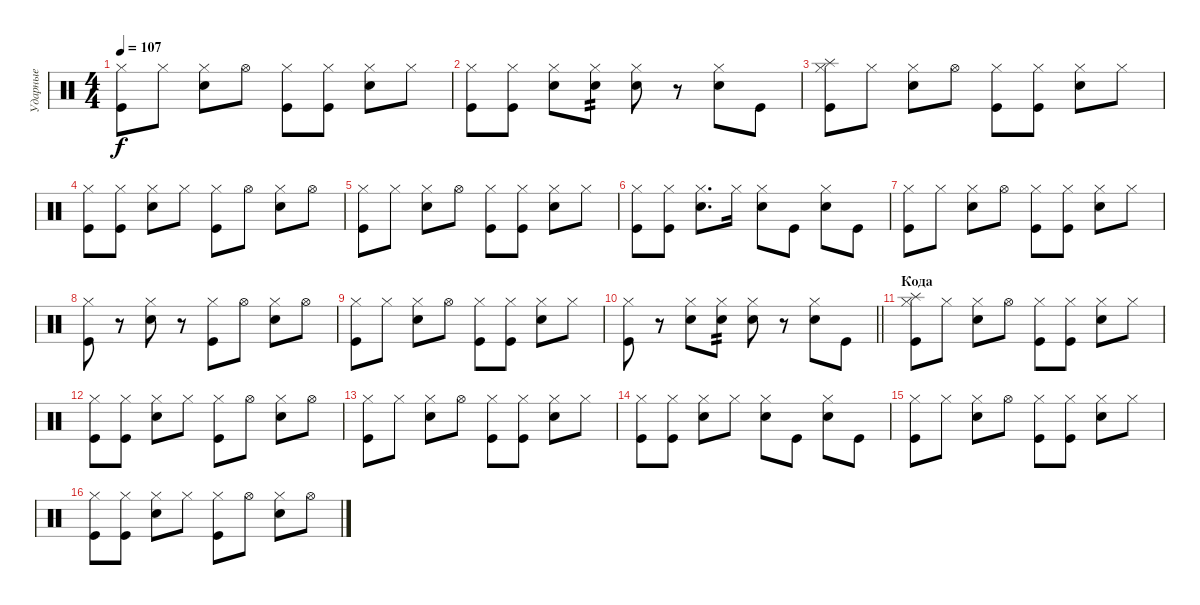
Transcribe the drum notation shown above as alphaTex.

\track ("Ударные" "Ударные") {instrument percussion}
\staff {score}
\articulation defaults
\ts (4 4)
\tempo 107
\clef neutral
\ks c
("Hi-Hat (closed)" "Kick (hit)").8{dy f} "Hi-Hat (closed)".8 ("Hi-Hat (closed)" "Electric Snare (hit)").8 "Hi-Hat (open)".8 ("Hi-Hat (closed)" "Kick (hit)").8 ("Hi-Hat (closed)" "Kick (hit)").8 ("Hi-Hat (closed)" "Electric Snare (hit)").8 "Hi-Hat (closed)".8 |
("Hi-Hat (closed)" "Kick (hit)").8 ("Hi-Hat (closed)" "Kick (hit)").8 ("Hi-Hat (closed)" "Electric Snare (hit)").8 ("Hi-Hat (closed)" "Electric Snare (hit)").8{tp 2} ("Hi-Hat (closed)" "Electric Snare (hit)").8 r.8 ("Hi-Hat (closed)" "Electric Snare (hit)").8 "Kick (hit)".8 |
("Hi-Hat (closed)" "Splash (hit)" "Kick (hit)").8 "Hi-Hat (closed)".8 ("Hi-Hat (closed)" "Electric Snare (hit)").8 "Hi-Hat (open)".8 ("Hi-Hat (closed)" "Kick (hit)").8 ("Hi-Hat (closed)" "Kick (hit)").8 ("Hi-Hat (closed)" "Electric Snare (hit)").8 "Hi-Hat (closed)".8 |
("Hi-Hat (closed)" "Kick (hit)").8 ("Hi-Hat (closed)" "Kick (hit)").8 ("Hi-Hat (closed)" "Electric Snare (hit)").8 "Hi-Hat (closed)".8 ("Hi-Hat (closed)" "Kick (hit)").8 "Hi-Hat (open)".8 ("Hi-Hat (closed)" "Electric Snare (hit)").8 "Hi-Hat (open)".8 |
("Hi-Hat (closed)" "Kick (hit)").8 "Hi-Hat (closed)".8 ("Hi-Hat (closed)" "Electric Snare (hit)").8 "Hi-Hat (open)".8 ("Hi-Hat (closed)" "Kick (hit)").8 ("Hi-Hat (closed)" "Kick (hit)").8 ("Hi-Hat (closed)" "Electric Snare (hit)").8 "Hi-Hat (closed)".8 |
("Hi-Hat (closed)" "Kick (hit)").8 ("Hi-Hat (closed)" "Kick (hit)").8 ("Hi-Hat (closed)" "Electric Snare (hit)").8{d} "Hi-Hat (closed)".16 ("Hi-Hat (closed)" "Electric Snare (hit)").8 "Kick (hit)".8 ("Hi-Hat (closed)" "Electric Snare (hit)").8 "Kick (hit)".8 |
("Hi-Hat (closed)" "Kick (hit)").8 "Hi-Hat (closed)".8 ("Hi-Hat (closed)" "Electric Snare (hit)").8 "Hi-Hat (open)".8 ("Hi-Hat (closed)" "Kick (hit)").8 ("Hi-Hat (closed)" "Kick (hit)").8 ("Hi-Hat (closed)" "Electric Snare (hit)").8 "Hi-Hat (closed)".8 |
("Hi-Hat (closed)" "Kick (hit)").8 r.8 ("Hi-Hat (closed)" "Electric Snare (hit)").8 r.8 ("Hi-Hat (closed)" "Kick (hit)").8 "Hi-Hat (open)".8 ("Hi-Hat (closed)" "Electric Snare (hit)").8 "Hi-Hat (open)".8 |
("Hi-Hat (closed)" "Kick (hit)").8 "Hi-Hat (closed)".8 ("Hi-Hat (closed)" "Electric Snare (hit)").8 "Hi-Hat (open)".8 ("Hi-Hat (closed)" "Kick (hit)").8 ("Hi-Hat (closed)" "Kick (hit)").8 ("Hi-Hat (closed)" "Electric Snare (hit)").8 "Hi-Hat (closed)".8 |
\barLineRight lightlight
("Hi-Hat (closed)" "Kick (hit)").8 r.8 ("Hi-Hat (closed)" "Electric Snare (hit)").8 ("Hi-Hat (closed)" "Electric Snare (hit)").8{tp 2} ("Hi-Hat (closed)" "Electric Snare (hit)").8 r.8 ("Hi-Hat (closed)" "Electric Snare (hit)").8 "Kick (hit)".8 |
\section ("" "Кода")
("Hi-Hat (closed)" "Splash (hit)" "Kick (hit)").8 "Hi-Hat (closed)".8 ("Hi-Hat (closed)" "Electric Snare (hit)").8 "Hi-Hat (open)".8 ("Hi-Hat (closed)" "Kick (hit)").8 ("Hi-Hat (closed)" "Kick (hit)").8 ("Hi-Hat (closed)" "Electric Snare (hit)").8 "Hi-Hat (closed)".8 |
("Hi-Hat (closed)" "Kick (hit)").8 ("Hi-Hat (closed)" "Kick (hit)").8 ("Hi-Hat (closed)" "Electric Snare (hit)").8 "Hi-Hat (closed)".8 ("Hi-Hat (closed)" "Kick (hit)").8 "Hi-Hat (open)".8 ("Hi-Hat (closed)" "Electric Snare (hit)").8 "Hi-Hat (open)".8 |
("Hi-Hat (closed)" "Kick (hit)").8 "Hi-Hat (closed)".8 ("Hi-Hat (closed)" "Electric Snare (hit)").8 "Hi-Hat (open)".8 ("Hi-Hat (closed)" "Kick (hit)").8 ("Hi-Hat (closed)" "Kick (hit)").8 ("Hi-Hat (closed)" "Electric Snare (hit)").8 "Hi-Hat (closed)".8 |
("Hi-Hat (closed)" "Kick (hit)").8 ("Hi-Hat (closed)" "Kick (hit)").8 ("Hi-Hat (closed)" "Electric Snare (hit)").8 "Hi-Hat (closed)".8 ("Hi-Hat (closed)" "Electric Snare (hit)").8 "Kick (hit)".8 ("Hi-Hat (closed)" "Electric Snare (hit)").8 "Kick (hit)".8 |
("Hi-Hat (closed)" "Kick (hit)").8 "Hi-Hat (closed)".8 ("Hi-Hat (closed)" "Electric Snare (hit)").8 "Hi-Hat (open)".8 ("Hi-Hat (closed)" "Kick (hit)").8 ("Hi-Hat (closed)" "Kick (hit)").8 ("Hi-Hat (closed)" "Electric Snare (hit)").8 "Hi-Hat (closed)".8 |
("Hi-Hat (closed)" "Kick (hit)").8 ("Hi-Hat (closed)" "Kick (hit)").8 ("Hi-Hat (closed)" "Electric Snare (hit)").8 "Hi-Hat (closed)".8 ("Hi-Hat (closed)" "Kick (hit)").8 "Hi-Hat (open)".8 ("Hi-Hat (closed)" "Electric Snare (hit)").8 "Hi-Hat (open)".8
